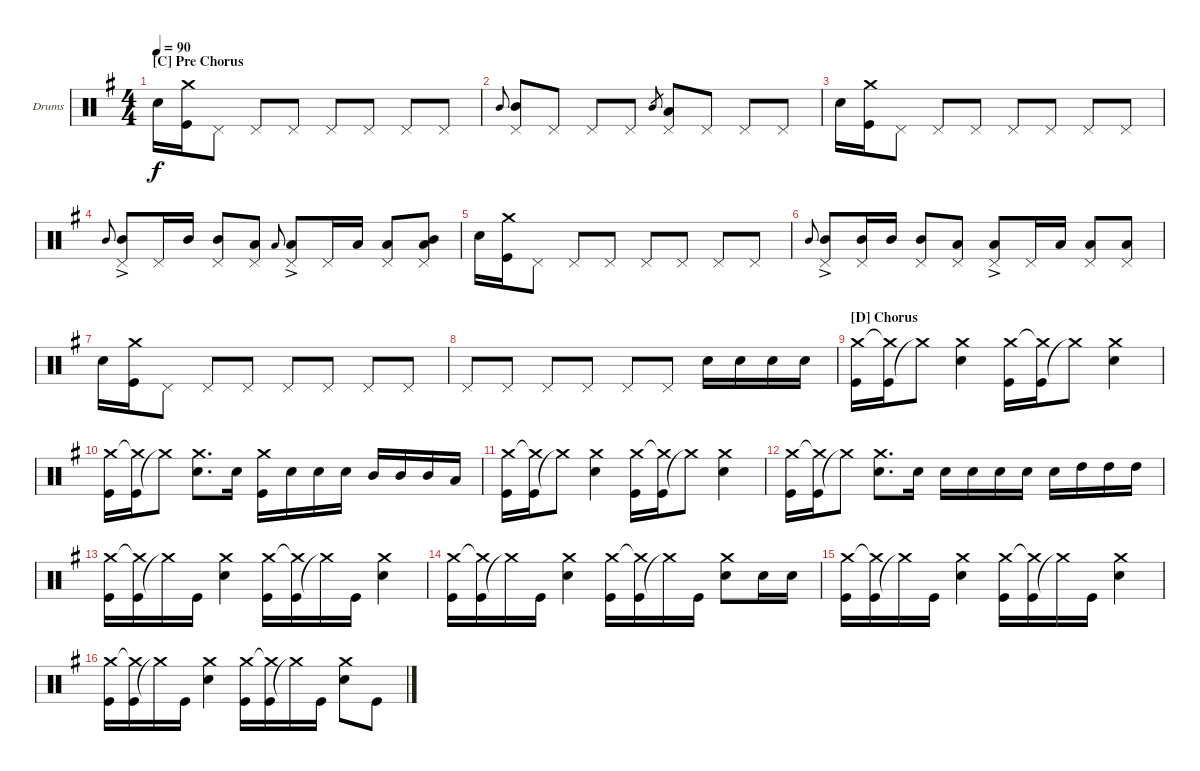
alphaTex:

\defaultSystemsLayout 4
\bracketExtendMode groupsimilarinstruments
\firstSystemTrackNameOrientation horizontal
\otherSystemsTrackNameOrientation horizontal
\track ("Matt Helders" "Drums") {multiBarRest instrument percussion}
\staff {score}
\articulation defaults
\ts (4 4)
\section ("C" "Pre Chorus")
\tempo 90
\clef neutral
\ks g "Snare (hit) 2".16{dy f}
("Kick (hit)" "Crash medium (hit)").16 "Pedal Hi-Hat (hit)".8 "Pedal Hi-Hat (hit)".8 "Pedal Hi-Hat (hit)".8 "Pedal Hi-Hat (hit)".8 "Pedal Hi-Hat (hit)".8 "Pedal Hi-Hat (hit)".8 "Pedal Hi-Hat (hit)".8 |
"Mid Tom (hit)".8{gr onbeat} ("Mid Tom (hit)" "Pedal Hi-Hat (hit)").8 "Pedal Hi-Hat (hit)".8 "Pedal Hi-Hat (hit)".8 "Pedal Hi-Hat (hit)".8 "Mid Tom (hit)".8{gr} ("Low Tom (hit)" "Pedal Hi-Hat (hit)").8 "Pedal Hi-Hat (hit)".8 "Pedal Hi-Hat (hit)".8 "Pedal Hi-Hat (hit)".8 |
"Snare (hit) 2".16 ("Kick (hit)" "Crash medium (hit)").16 "Pedal Hi-Hat (hit)".8 "Pedal Hi-Hat (hit)".8 "Pedal Hi-Hat (hit)".8 "Pedal Hi-Hat (hit)".8 "Pedal Hi-Hat (hit)".8 "Pedal Hi-Hat (hit)".8 "Pedal Hi-Hat (hit)".8 |
"Mid Tom (hit)".8{gr onbeat} ("Mid Tom (hit)"{ac} "Pedal Hi-Hat (hit)").8 "Pedal Hi-Hat (hit)".16 "Mid Tom (hit)".16 ("Mid Tom (hit)" "Pedal Hi-Hat (hit)").8 ("Low Tom (hit)" "Pedal Hi-Hat (hit)").8 "Low Tom (hit)".8{gr onbeat} ("Low Tom (hit)"{ac} "Pedal Hi-Hat (hit)").8 "Pedal Hi-Hat (hit)".16 "Low Tom (hit)".16 ("Low Tom (hit)" "Pedal Hi-Hat (hit)").8 ("Low Tom (hit)" "Mid Tom (hit)" "Pedal Hi-Hat (hit)").8 |
"Snare (hit) 2".16 ("Kick (hit)" "Crash medium (hit)").16 "Pedal Hi-Hat (hit)".8 "Pedal Hi-Hat (hit)".8 "Pedal Hi-Hat (hit)".8 "Pedal Hi-Hat (hit)".8 "Pedal Hi-Hat (hit)".8 "Pedal Hi-Hat (hit)".8 "Pedal Hi-Hat (hit)".8 |
"Mid Tom (hit)".8{gr onbeat} ("Mid Tom (hit)"{ac} "Pedal Hi-Hat (hit)").8 ("Pedal Hi-Hat (hit)" "Mid Tom (hit)").16 "Mid Tom (hit)".16 ("Mid Tom (hit)" "Pedal Hi-Hat (hit)").8 ("Pedal Hi-Hat (hit)" "Low Tom (hit)").8 ("Low Tom (hit)"{ac} "Pedal Hi-Hat (hit)").8 "Pedal Hi-Hat (hit)".16 "Low Tom (hit)".16 ("Low Tom (hit)" "Pedal Hi-Hat (hit)").8 ("Low Tom (hit)" "Pedal Hi-Hat (hit)").8 |
"Snare (hit) 2".16 ("Kick (hit)" "Crash medium (hit)").16 "Pedal Hi-Hat (hit)".8 "Pedal Hi-Hat (hit)".8 "Pedal Hi-Hat (hit)".8 "Pedal Hi-Hat (hit)".8 "Pedal Hi-Hat (hit)".8 "Pedal Hi-Hat (hit)".8 "Pedal Hi-Hat (hit)".8 |
"Pedal Hi-Hat (hit)".8 "Pedal Hi-Hat (hit)".8 "Pedal Hi-Hat (hit)".8 "Pedal Hi-Hat (hit)".8 "Pedal Hi-Hat (hit)".8 "Pedal Hi-Hat (hit)".8 "Snare (hit) 2".16 "Snare (hit) 2".16 "Snare (hit) 2".16 "Snare (hit) 2".16 |
\section ("D" "Chorus")
("Kick (hit)" "Crash medium (hit)").16 ("Kick (hit)" "Crash medium (hit)"{t}).16 "Crash medium (hit)"{t}.8 ("Snare (hit) 2" "Crash medium (hit)").4 ("Kick (hit)" "Crash medium (hit)").16 ("Kick (hit)" "Crash medium (hit)"{t}).16 "Crash medium (hit)"{t}.8 ("Snare (hit) 2" "Crash medium (hit)").4 |
("Kick (hit)" "Crash medium (hit)").16 ("Kick (hit)" "Crash medium (hit)"{t}).16 "Crash medium (hit)"{t}.8 ("Snare (hit) 2" "Crash medium (hit)").8{d} "Snare (hit) 2".16 ("Crash medium (hit)" "Kick (hit)").16 "Snare (hit) 2".16 "Snare (hit) 2".16 "Snare (hit) 2".16 "Mid Tom (hit)".16 "Mid Tom (hit)".16 "Mid Tom (hit)".16 "Low Tom (hit)".16 |
("Kick (hit)" "Crash medium (hit)").16 ("Kick (hit)" "Crash medium (hit)"{t}).16 "Crash medium (hit)"{t}.8 ("Snare (hit) 2" "Crash medium (hit)").4 ("Kick (hit)" "Crash medium (hit)").16 ("Kick (hit)" "Crash medium (hit)"{t}).16 "Crash medium (hit)"{t}.8 ("Snare (hit) 2" "Crash medium (hit)").4 |
("Kick (hit)" "Crash medium (hit)").16 ("Kick (hit)" "Crash medium (hit)"{t}).16 "Crash medium (hit)"{t}.8 ("Snare (hit) 2" "Crash medium (hit)").8{d} "Snare (hit) 2".16 "Snare (hit) 2".16 "Snare (hit) 2".16 "Snare (hit) 2".16 "Snare (hit) 2".16 "Snare (hit) 2".16 "High Tom (hit)".16 "High Tom (hit)".16 "High Tom (hit)".16 |
("Kick (hit)" "Crash medium (hit)").16 ("Kick (hit)" "Crash medium (hit)"{t}).16 "Crash medium (hit)"{t}.16 "Kick (hit)".16 ("Snare (hit) 2" "Crash medium (hit)").4 ("Kick (hit)" "Crash medium (hit)").16 ("Kick (hit)" "Crash medium (hit)"{t}).16 "Crash medium (hit)"{t}.16 "Kick (hit)".16 ("Snare (hit) 2" "Crash medium (hit)").4 |
("Kick (hit)" "Crash medium (hit)").16 ("Kick (hit)" "Crash medium (hit)"{t}).16 "Crash medium (hit)"{t}.16 "Kick (hit)".16 ("Snare (hit) 2" "Crash medium (hit)").4 ("Kick (hit)" "Crash medium (hit)").16 ("Kick (hit)" "Crash medium (hit)"{t}).16 "Crash medium (hit)"{t}.16 "Kick (hit)".16 ("Snare (hit) 2" "Crash medium (hit)").8 "Snare (hit) 2".16 "Snare (hit) 2".16 |
("Kick (hit)" "Crash medium (hit)").16 ("Kick (hit)" "Crash medium (hit)"{t}).16 "Crash medium (hit)"{t}.16 "Kick (hit)".16 ("Snare (hit) 2" "Crash medium (hit)").4 ("Kick (hit)" "Crash medium (hit)").16 ("Kick (hit)" "Crash medium (hit)"{t}).16 "Crash medium (hit)"{t}.16 "Kick (hit)".16 ("Snare (hit) 2" "Crash medium (hit)").4 |
("Kick (hit)" "Crash medium (hit)").16 ("Kick (hit)" "Crash medium (hit)"{t}).16 "Crash medium (hit)"{t}.16 "Kick (hit)".16 ("Snare (hit) 2" "Crash medium (hit)").4 ("Kick (hit)" "Crash medium (hit)").16 ("Kick (hit)" "Crash medium (hit)"{t}).16 "Crash medium (hit)"{t}.16 "Kick (hit)".16 ("Snare (hit) 2" "Crash medium (hit)").8 "Kick (hit)".8
